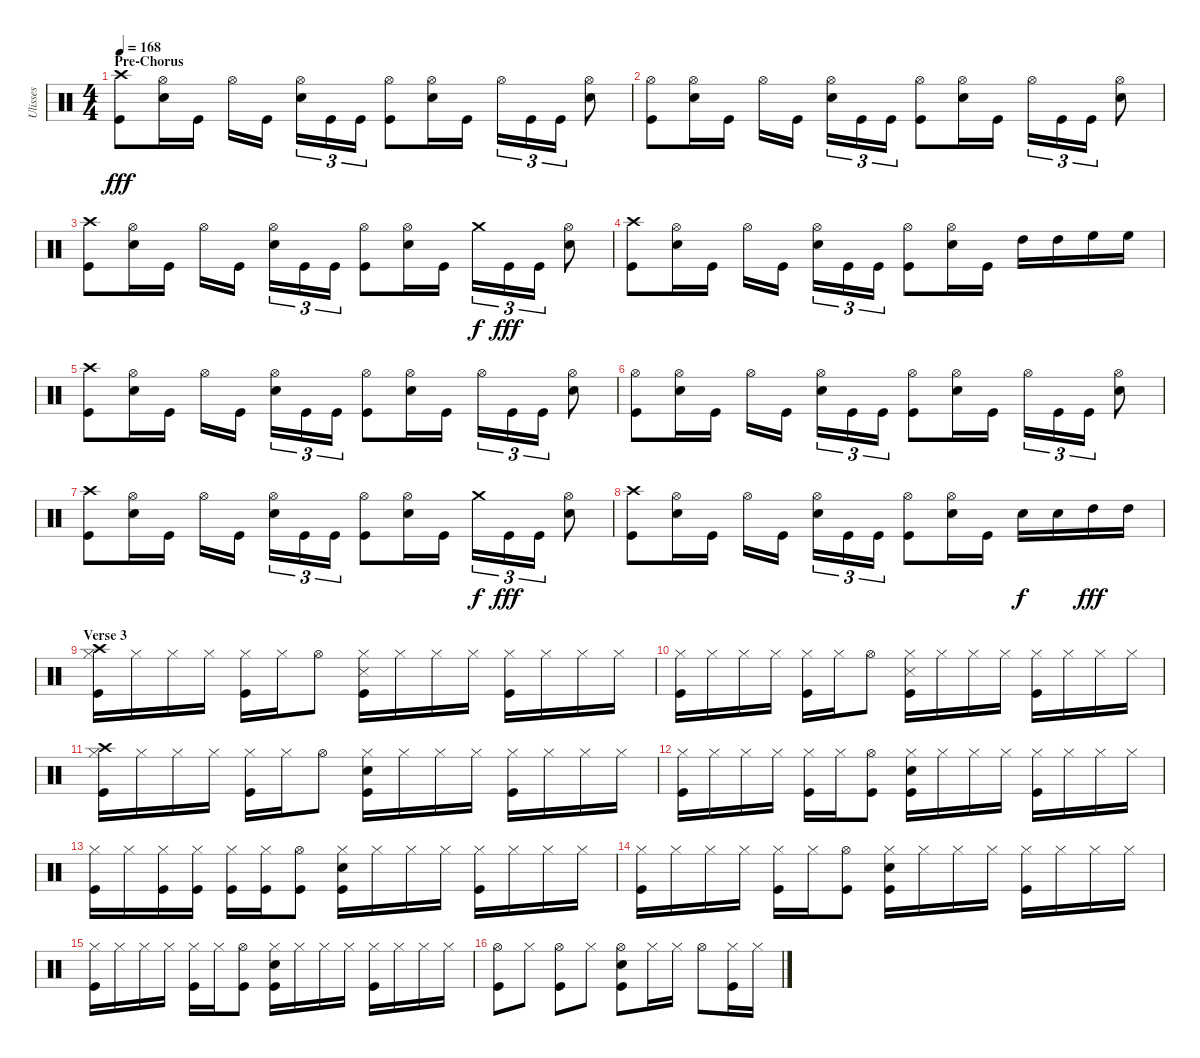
\track ("Ulisses" "Ulisses") {instrument percussion}
\staff {score}
\articulation defaults
\ts (4 4)
\section ("" "Pre-Chorus")
\tempo 168
\clef neutral
\ks c
("Crash high (hit)" "Kick (hit)").8{dy fff} ("Hi-Hat (open)" "Snare (hit) 2").16 "Kick (hit)".16 "Hi-Hat (open)".16 "Kick (hit)".16 ("Hi-Hat (open)" "Snare (hit) 2").16{tu (3 2)} "Kick (hit)".16{tu (3 2)} "Kick (hit)".16{tu (3 2)} ("Hi-Hat (open)" "Kick (hit)").8 ("Hi-Hat (open)" "Snare (hit) 2").16 "Kick (hit)".16 "Hi-Hat (open)".16{tu (3 2)} "Kick (hit)".16{tu (3 2)} "Kick (hit)".16{tu (3 2)} ("Hi-Hat (open)" "Snare (hit) 2").8 |
("Hi-Hat (open)" "Kick (hit)").8 ("Hi-Hat (open)" "Snare (hit) 2").16 "Kick (hit)".16 "Hi-Hat (open)".16 "Kick (hit)".16 ("Hi-Hat (open)" "Snare (hit) 2").16{tu (3 2)} "Kick (hit)".16{tu (3 2)} "Kick (hit)".16{tu (3 2)} ("Hi-Hat (open)" "Kick (hit)").8 ("Hi-Hat (open)" "Snare (hit) 2").16 "Kick (hit)".16 "Hi-Hat (open)".16{tu (3 2)} "Kick (hit)".16{tu (3 2)} "Kick (hit)".16{tu (3 2)} ("Hi-Hat (open)" "Snare (hit) 2").8 |
("Crash high (hit)" "Kick (hit)").8 ("Hi-Hat (open)" "Snare (hit) 2").16 "Kick (hit)".16 "Hi-Hat (open)".16 "Kick (hit)".16 ("Hi-Hat (open)" "Snare (hit) 2").16{tu (3 2)} "Kick (hit)".16{tu (3 2)} "Kick (hit)".16{tu (3 2)} ("Hi-Hat (open)" "Kick (hit)").8 ("Hi-Hat (open)" "Snare (hit) 2").16 "Kick (hit)".16 "Crash medium (hit)".16{tu (3 2) dy f} "Kick (hit)".16{tu (3 2) dy fff} "Kick (hit)".16{tu (3 2)} ("Hi-Hat (open)" "Snare (hit) 2").8 |
("Crash high (hit)" "Kick (hit)").8 ("Hi-Hat (open)" "Snare (hit) 2").16 "Kick (hit)".16 "Hi-Hat (open)".16 "Kick (hit)".16 ("Hi-Hat (open)" "Snare (hit) 2").16{tu (3 2)} "Kick (hit)".16{tu (3 2)} "Kick (hit)".16{tu (3 2)} ("Hi-Hat (open)" "Kick (hit)").8 ("Hi-Hat (open)" "Snare (hit) 2").16 "Kick (hit)".16 "High Tom (hit)".16 "High Tom (hit)".16 "High Floor Tom (hit)".16 "High Floor Tom (hit)".16 |
("Crash high (hit)" "Kick (hit)").8 ("Hi-Hat (open)" "Snare (hit) 2").16 "Kick (hit)".16 "Hi-Hat (open)".16 "Kick (hit)".16 ("Hi-Hat (open)" "Snare (hit) 2").16{tu (3 2)} "Kick (hit)".16{tu (3 2)} "Kick (hit)".16{tu (3 2)} ("Hi-Hat (open)" "Kick (hit)").8 ("Hi-Hat (open)" "Snare (hit) 2").16 "Kick (hit)".16 "Hi-Hat (open)".16{tu (3 2)} "Kick (hit)".16{tu (3 2)} "Kick (hit)".16{tu (3 2)} ("Hi-Hat (open)" "Snare (hit) 2").8 |
("Hi-Hat (open)" "Kick (hit)").8 ("Hi-Hat (open)" "Snare (hit) 2").16 "Kick (hit)".16 "Hi-Hat (open)".16 "Kick (hit)".16 ("Hi-Hat (open)" "Snare (hit) 2").16{tu (3 2)} "Kick (hit)".16{tu (3 2)} "Kick (hit)".16{tu (3 2)} ("Hi-Hat (open)" "Kick (hit)").8 ("Hi-Hat (open)" "Snare (hit) 2").16 "Kick (hit)".16 "Hi-Hat (open)".16{tu (3 2)} "Kick (hit)".16{tu (3 2)} "Kick (hit)".16{tu (3 2)} ("Hi-Hat (open)" "Snare (hit) 2").8 |
("Crash high (hit)" "Kick (hit)").8 ("Hi-Hat (open)" "Snare (hit) 2").16 "Kick (hit)".16 "Hi-Hat (open)".16 "Kick (hit)".16 ("Hi-Hat (open)" "Snare (hit) 2").16{tu (3 2)} "Kick (hit)".16{tu (3 2)} "Kick (hit)".16{tu (3 2)} ("Hi-Hat (open)" "Kick (hit)").8 ("Hi-Hat (open)" "Snare (hit) 2").16 "Kick (hit)".16 "Crash medium (hit)".16{tu (3 2) dy f} "Kick (hit)".16{tu (3 2) dy fff} "Kick (hit)".16{tu (3 2)} ("Hi-Hat (open)" "Snare (hit) 2").8 |
("Crash high (hit)" "Kick (hit)").8 ("Hi-Hat (open)" "Snare (hit) 2").16 "Kick (hit)".16 "Hi-Hat (open)".16 "Kick (hit)".16 ("Hi-Hat (open)" "Snare (hit) 2").16{tu (3 2)} "Kick (hit)".16{tu (3 2)} "Kick (hit)".16{tu (3 2)} ("Hi-Hat (open)" "Kick (hit)").8 ("Hi-Hat (open)" "Snare (hit) 2").16 "Kick (hit)".16 "Snare (hit) 2".16{dy f} "Snare (hit) 2".16 "High Tom (hit)".16{dy fff} "High Tom (hit)".16 |
\section ("" "Verse 3")
("Hi-Hat (closed)" "Crash high (hit)" "Kick (hit)").16 "Hi-Hat (closed)".16 "Hi-Hat (closed)".16 "Hi-Hat (closed)".16 ("Hi-Hat (closed)" "Kick (hit)").16 "Hi-Hat (closed)".16 "Hi-Hat (open)".8 ("Hi-Hat (closed)" "Snare (side stick) 3" "Kick (hit)").16 "Hi-Hat (closed)".16 "Hi-Hat (closed)".16 "Hi-Hat (closed)".16 ("Hi-Hat (closed)" "Kick (hit)").16 "Hi-Hat (closed)".16 "Hi-Hat (closed)".16 "Hi-Hat (closed)".16 |
("Hi-Hat (closed)" "Kick (hit)").16 "Hi-Hat (closed)".16 "Hi-Hat (closed)".16 "Hi-Hat (closed)".16 ("Hi-Hat (closed)" "Kick (hit)").16 "Hi-Hat (closed)".16 "Hi-Hat (open)".8 ("Hi-Hat (closed)" "Snare (side stick) 3" "Kick (hit)").16 "Hi-Hat (closed)".16 "Hi-Hat (closed)".16 "Hi-Hat (closed)".16 ("Hi-Hat (closed)" "Kick (hit)").16 "Hi-Hat (closed)".16 "Hi-Hat (closed)".16 "Hi-Hat (closed)".16 |
("Hi-Hat (closed)" "Crash high (hit)" "Kick (hit)").16 "Hi-Hat (closed)".16 "Hi-Hat (closed)".16 "Hi-Hat (closed)".16 ("Hi-Hat (closed)" "Kick (hit)").16 "Hi-Hat (closed)".16 "Hi-Hat (open)".8 ("Hi-Hat (closed)" "Snare (hit) 2" "Kick (hit)").16 "Hi-Hat (closed)".16 "Hi-Hat (closed)".16 "Hi-Hat (closed)".16 ("Hi-Hat (closed)" "Kick (hit)").16 "Hi-Hat (closed)".16 "Hi-Hat (closed)".16 "Hi-Hat (closed)".16 |
("Hi-Hat (closed)" "Kick (hit)").16 "Hi-Hat (closed)".16 "Hi-Hat (closed)".16 "Hi-Hat (closed)".16 ("Hi-Hat (closed)" "Kick (hit)").16 "Hi-Hat (closed)".16 ("Hi-Hat (open)" "Kick (hit)").8 ("Hi-Hat (closed)" "Snare (hit) 2" "Kick (hit)").16 "Hi-Hat (closed)".16 "Hi-Hat (closed)".16 "Hi-Hat (closed)".16 ("Hi-Hat (closed)" "Kick (hit)").16 "Hi-Hat (closed)".16 "Hi-Hat (closed)".16 "Hi-Hat (closed)".16 |
("Hi-Hat (closed)" "Kick (hit)").16 "Hi-Hat (closed)".16 ("Hi-Hat (closed)" "Kick (hit)").16 ("Hi-Hat (closed)" "Kick (hit)").16 ("Hi-Hat (closed)" "Kick (hit)").16 ("Hi-Hat (closed)" "Kick (hit)").16 ("Hi-Hat (open)" "Kick (hit)").8 ("Hi-Hat (closed)" "Snare (hit) 2" "Kick (hit)").16 "Hi-Hat (closed)".16 "Hi-Hat (closed)".16 "Hi-Hat (closed)".16 ("Hi-Hat (closed)" "Kick (hit)").16 "Hi-Hat (closed)".16 "Hi-Hat (closed)".16 "Hi-Hat (closed)".16 |
("Hi-Hat (closed)" "Kick (hit)").16 "Hi-Hat (closed)".16 "Hi-Hat (closed)".16 "Hi-Hat (closed)".16 ("Hi-Hat (closed)" "Kick (hit)").16 "Hi-Hat (closed)".16 ("Hi-Hat (open)" "Kick (hit)").8 ("Hi-Hat (closed)" "Snare (hit) 2" "Kick (hit)").16 "Hi-Hat (closed)".16 "Hi-Hat (closed)".16 "Hi-Hat (closed)".16 ("Hi-Hat (closed)" "Kick (hit)").16 "Hi-Hat (closed)".16 "Hi-Hat (closed)".16 "Hi-Hat (closed)".16 |
("Hi-Hat (closed)" "Kick (hit)").16 "Hi-Hat (closed)".16 "Hi-Hat (closed)".16 "Hi-Hat (closed)".16 ("Hi-Hat (closed)" "Kick (hit)").16 "Hi-Hat (closed)".16 ("Hi-Hat (open)" "Kick (hit)").8 ("Hi-Hat (closed)" "Snare (hit) 2" "Kick (hit)").16 "Hi-Hat (closed)".16 "Hi-Hat (closed)".16 "Hi-Hat (closed)".16 ("Hi-Hat (closed)" "Kick (hit)").16 "Hi-Hat (closed)".16 "Hi-Hat (closed)".16 "Hi-Hat (closed)".16 |
("Hi-Hat (open)" "Kick (hit)").8 "Hi-Hat (closed)".8 ("Hi-Hat (open)" "Kick (hit)").8 "Hi-Hat (closed)".8 ("Hi-Hat (open)" "Snare (hit) 2" "Kick (hit)").8 "Hi-Hat (closed)".16 "Hi-Hat (closed)".16 "Hi-Hat (open)".8 ("Hi-Hat (closed)" "Kick (hit)").16 "Hi-Hat (closed)".16
